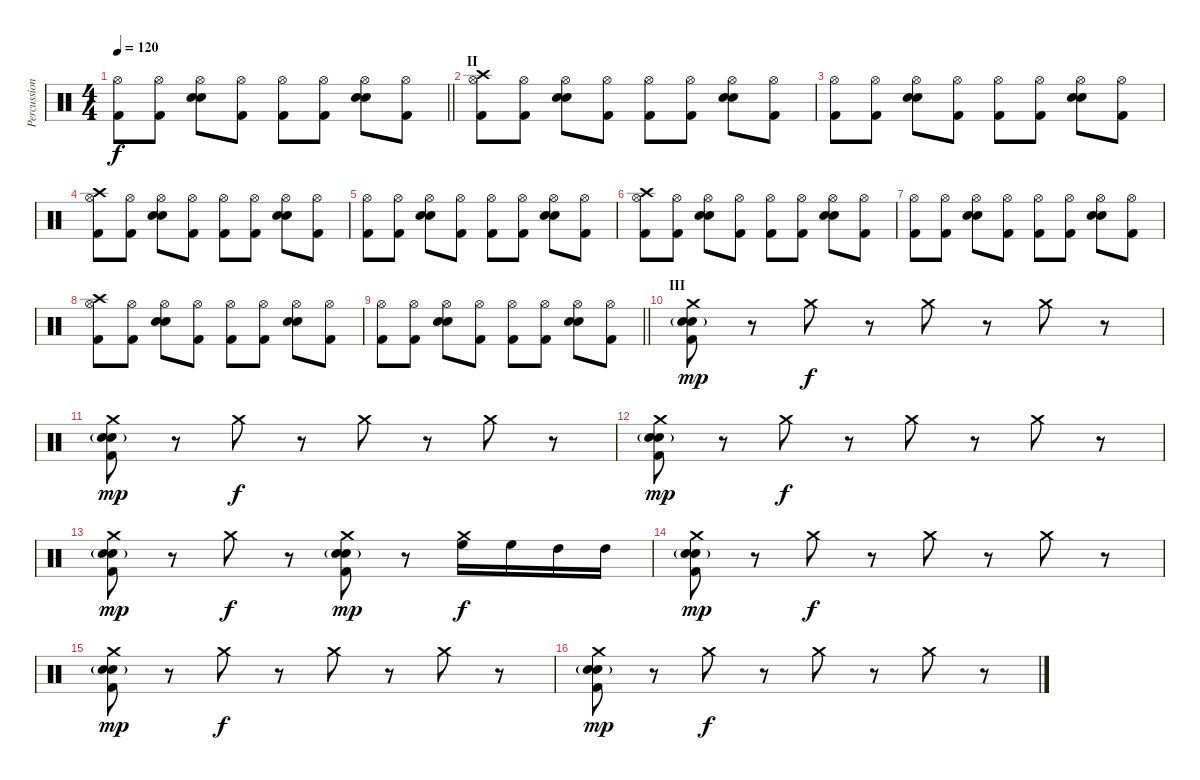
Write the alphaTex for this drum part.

\track ("Percussion" "Percussion") {instrument percussion}
\staff {score}
\articulation defaults
\ts (4 4)
\tempo 120
\clef neutral
\barLineRight lightlight
\ks c
("Kick (hit) 2" "Hi-Hat (open)").8{dy f} ("Kick (hit) 2" "Hi-Hat (open)").8 ("Electric Snare (hit)" "Snare (hit) 2" "Hi-Hat (open)").8 ("Kick (hit) 2" "Hi-Hat (open)").8 ("Kick (hit) 2" "Hi-Hat (open)").8 ("Kick (hit) 2" "Hi-Hat (open)").8 ("Electric Snare (hit)" "Snare (hit) 2" "Hi-Hat (open)").8 ("Kick (hit) 2" "Hi-Hat (open)").8 |
\section ("" "II")
("Crash high (hit)" "Kick (hit) 2" "Hi-Hat (open)").8 ("Kick (hit) 2" "Hi-Hat (open)").8 ("Electric Snare (hit)" "Snare (hit) 2" "Hi-Hat (open)").8 ("Kick (hit) 2" "Hi-Hat (open)").8 ("Kick (hit) 2" "Hi-Hat (open)").8 ("Kick (hit) 2" "Hi-Hat (open)").8 ("Electric Snare (hit)" "Snare (hit) 2" "Hi-Hat (open)").8 ("Kick (hit) 2" "Hi-Hat (open)").8 |
("Kick (hit) 2" "Hi-Hat (open)").8 ("Kick (hit) 2" "Hi-Hat (open)").8 ("Electric Snare (hit)" "Snare (hit) 2" "Hi-Hat (open)").8 ("Kick (hit) 2" "Hi-Hat (open)").8 ("Kick (hit) 2" "Hi-Hat (open)").8 ("Kick (hit) 2" "Hi-Hat (open)").8 ("Electric Snare (hit)" "Snare (hit) 2" "Hi-Hat (open)").8 ("Kick (hit) 2" "Hi-Hat (open)").8 |
("Crash high (hit)" "Kick (hit) 2" "Hi-Hat (open)").8 ("Kick (hit) 2" "Hi-Hat (open)").8 ("Electric Snare (hit)" "Snare (hit) 2" "Hi-Hat (open)").8 ("Kick (hit) 2" "Hi-Hat (open)").8 ("Kick (hit) 2" "Hi-Hat (open)").8 ("Kick (hit) 2" "Hi-Hat (open)").8 ("Electric Snare (hit)" "Snare (hit) 2" "Hi-Hat (open)").8 ("Kick (hit) 2" "Hi-Hat (open)").8 |
("Kick (hit) 2" "Hi-Hat (open)").8 ("Kick (hit) 2" "Hi-Hat (open)").8 ("Electric Snare (hit)" "Snare (hit) 2" "Hi-Hat (open)").8 ("Kick (hit) 2" "Hi-Hat (open)").8 ("Kick (hit) 2" "Hi-Hat (open)").8 ("Kick (hit) 2" "Hi-Hat (open)").8 ("Electric Snare (hit)" "Snare (hit) 2" "Hi-Hat (open)").8 ("Kick (hit) 2" "Hi-Hat (open)").8 |
("Crash high (hit)" "Kick (hit) 2" "Hi-Hat (open)").8 ("Kick (hit) 2" "Hi-Hat (open)").8 ("Electric Snare (hit)" "Snare (hit) 2" "Hi-Hat (open)").8 ("Kick (hit) 2" "Hi-Hat (open)").8 ("Kick (hit) 2" "Hi-Hat (open)").8 ("Kick (hit) 2" "Hi-Hat (open)").8 ("Electric Snare (hit)" "Snare (hit) 2" "Hi-Hat (open)").8 ("Kick (hit) 2" "Hi-Hat (open)").8 |
("Kick (hit) 2" "Hi-Hat (open)").8 ("Kick (hit) 2" "Hi-Hat (open)").8 ("Electric Snare (hit)" "Snare (hit) 2" "Hi-Hat (open)").8 ("Kick (hit) 2" "Hi-Hat (open)").8 ("Kick (hit) 2" "Hi-Hat (open)").8 ("Kick (hit) 2" "Hi-Hat (open)").8 ("Electric Snare (hit)" "Snare (hit) 2" "Hi-Hat (open)").8 ("Kick (hit) 2" "Hi-Hat (open)").8 |
("Crash high (hit)" "Kick (hit) 2" "Hi-Hat (open)").8 ("Kick (hit) 2" "Hi-Hat (open)").8 ("Electric Snare (hit)" "Snare (hit) 2" "Hi-Hat (open)").8 ("Kick (hit) 2" "Hi-Hat (open)").8 ("Kick (hit) 2" "Hi-Hat (open)").8 ("Kick (hit) 2" "Hi-Hat (open)").8 ("Electric Snare (hit)" "Snare (hit) 2" "Hi-Hat (open)").8 ("Kick (hit) 2" "Hi-Hat (open)").8 |
\barLineRight lightlight
("Kick (hit) 2" "Hi-Hat (open)").8 ("Kick (hit) 2" "Hi-Hat (open)").8 ("Electric Snare (hit)" "Snare (hit) 2" "Hi-Hat (open)").8 ("Kick (hit) 2" "Hi-Hat (open)").8 ("Kick (hit) 2" "Hi-Hat (open)").8 ("Kick (hit) 2" "Hi-Hat (open)").8 ("Electric Snare (hit)" "Snare (hit) 2" "Hi-Hat (open)").8 ("Kick (hit) 2" "Hi-Hat (open)").8 |
\section ("" "III")
("Crash medium (hit)" "Electric Snare (hit)" "Snare (hit) 2"{g} "Kick (hit) 2").8{dy mp} r.8 "Crash medium (hit)".8{dy f} r.8 "Crash medium (hit)".8 r.8 "Crash medium (hit)".8 r.8 |
("Crash medium (hit)" "Electric Snare (hit)" "Snare (hit) 2"{g} "Kick (hit) 2").8{dy mp} r.8 "Crash medium (hit)".8{dy f} r.8 "Crash medium (hit)".8 r.8 "Crash medium (hit)".8 r.8 |
("Crash medium (hit)" "Electric Snare (hit)" "Snare (hit) 2"{g} "Kick (hit) 2").8{dy mp} r.8 "Crash medium (hit)".8{dy f} r.8 "Crash medium (hit)".8 r.8 "Crash medium (hit)".8 r.8 |
("Crash medium (hit)" "Electric Snare (hit)" "Snare (hit) 2"{g} "Kick (hit) 2").8{dy mp} r.8 "Crash medium (hit)".8{dy f} r.8 ("Crash medium (hit)" "Electric Snare (hit)" "Snare (hit) 2"{g} "Kick (hit) 2").8{dy mp} r.8 ("Crash medium (hit)" "High Floor Tom (hit)").16{dy f} "High Floor Tom (hit)".16 "High Tom (hit)".16 "High Tom (hit)".16 |
("Crash medium (hit)" "Electric Snare (hit)" "Snare (hit) 2"{g} "Kick (hit) 2").8{dy mp} r.8 "Crash medium (hit)".8{dy f} r.8 "Crash medium (hit)".8 r.8 "Crash medium (hit)".8 r.8 |
("Crash medium (hit)" "Electric Snare (hit)" "Snare (hit) 2"{g} "Kick (hit) 2").8{dy mp} r.8 "Crash medium (hit)".8{dy f} r.8 "Crash medium (hit)".8 r.8 "Crash medium (hit)".8 r.8 |
("Crash medium (hit)" "Electric Snare (hit)" "Snare (hit) 2"{g} "Kick (hit) 2").8{dy mp} r.8 "Crash medium (hit)".8{dy f} r.8 "Crash medium (hit)".8 r.8 "Crash medium (hit)".8 r.8
